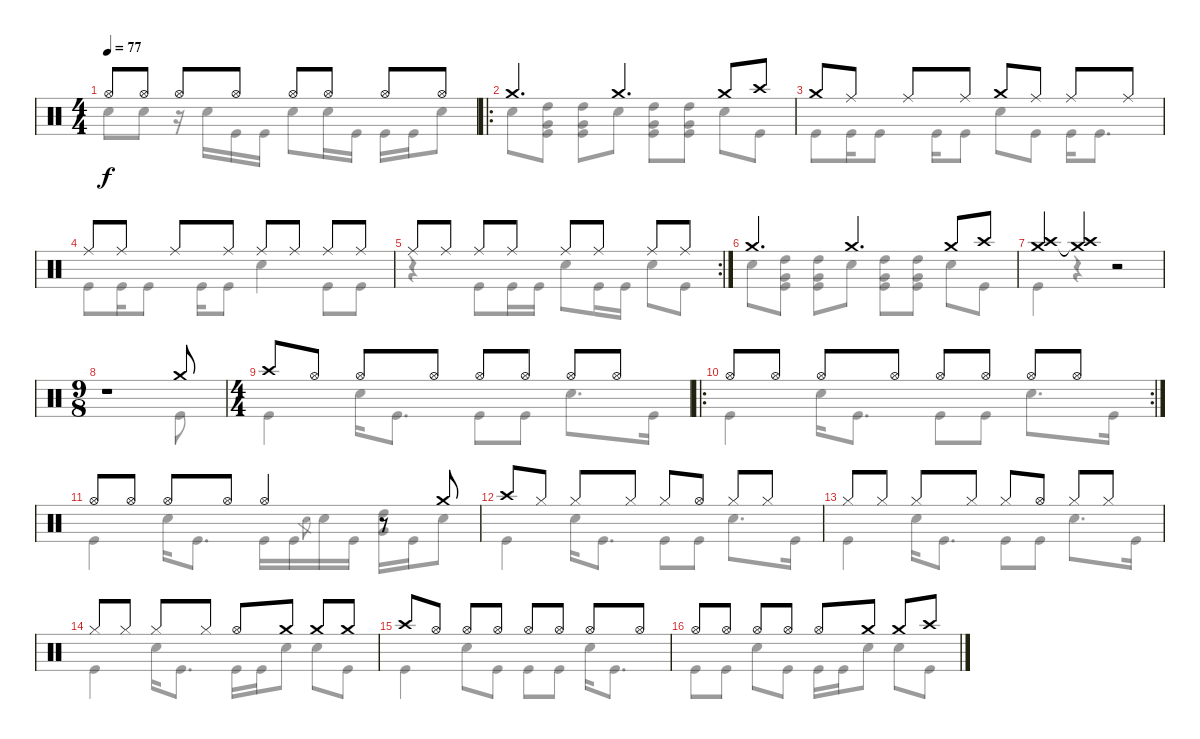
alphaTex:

\track "" {instrument percussion}
\staff {score}
\articulation defaults
\voice
\ts (4 4)
\tempo 77
\clef neutral
\ks c "Hi-Hat (open)".8{dy f} "Hi-Hat (open)".8 "Hi-Hat (open)".8 "Hi-Hat (open)".8 "Hi-Hat (open)".8 "Hi-Hat (open)".8 "Hi-Hat (open)".8 "Hi-Hat (open)".8
|
\ro "Crash medium (hit)".4{d} "Crash medium (hit)".4{d} "Crash medium (hit)".8 "Crash high (hit)".8
|
"Crash medium (hit)".8 "Ride (middle)".8 "Ride (middle)".8 "Ride (middle)".8 "Crash medium (hit)".8 "Ride (middle)".8 "Ride (middle)".8 "Ride (middle)".8 |
"Ride (middle)".8 "Ride (middle)".8 "Ride (middle)".8 "Ride (middle)".8 "Ride (middle)".8 "Ride (middle)".8 "Ride (middle)".8 "Ride (middle)".8 |
\rc 2 "Ride (middle)".8 "Ride (middle)".8 "Ride (middle)".8 "Ride (middle)".8 "Ride (middle)".8 "Ride (middle)".8 "Ride (middle)".8 "Ride (middle)".8
|
"Crash medium (hit)".4{d} "Crash medium (hit)".4{d} "Crash medium (hit)".8 "Crash high (hit)".8 |
("Crash high (hit)" "Crash medium (hit)").4 ("Crash high (hit)"{t} "Crash medium (hit)").4 r.2 |
\ts (9 8)
r.1 "Crash medium (hit)".8 |
\ts (4 4)
"Crash high (hit)".8 "Hi-Hat (open)".8 "Hi-Hat (open)".8 "Hi-Hat (open)".8 "Hi-Hat (open)".8 "Hi-Hat (open)".8 "Hi-Hat (open)".8 "Hi-Hat (open)".8 |
\ro
\rc 2 "Hi-Hat (open)".8 "Hi-Hat (open)".8 "Hi-Hat (open)".8 "Hi-Hat (open)".8 "Hi-Hat (open)".8 "Hi-Hat (open)".8 "Hi-Hat (open)".8 "Hi-Hat (open)".8
|
"Hi-Hat (open)".8 "Hi-Hat (open)".8 "Hi-Hat (open)".8 "Hi-Hat (open)".8 "Hi-Hat (open)".4 r.8 "Crash medium (hit)".8 |
"Crash high (hit)".8 "Hi-Hat (closed)".8 "Hi-Hat (closed)".8 "Hi-Hat (closed)".8 "Hi-Hat (closed)".8 "Hi-Hat (open)".8 "Hi-Hat (closed)".8 "Hi-Hat (closed)".8 |
"Hi-Hat (closed)".8 "Hi-Hat (closed)".8 "Hi-Hat (closed)".8 "Hi-Hat (closed)".8 "Hi-Hat (closed)".8 "Hi-Hat (open)".8 "Hi-Hat (closed)".8 "Hi-Hat (closed)".8 |
"Hi-Hat (closed)".8 "Hi-Hat (closed)".8 "Hi-Hat (closed)".8 "Hi-Hat (closed)".8 "Hi-Hat (open)".8 "Crash medium (hit)".8 "Crash medium (hit)".8 "Crash medium (hit)".8 |
"Crash high (hit)".8 "Hi-Hat (open)".8 "Hi-Hat (open)".8 "Hi-Hat (open)".8 "Hi-Hat (open)".8 "Hi-Hat (open)".8 "Hi-Hat (open)".8 "Hi-Hat (open)".8 |
"Hi-Hat (open)".8 "Hi-Hat (open)".8 "Hi-Hat (open)".8 "Hi-Hat (open)".8 "Hi-Hat (open)".8 "Crash medium (hit)".8 "Crash medium (hit)".8 "Crash high (hit)".8
\voice
\clef neutral
\ottava regular
\simile none
\ks c "Snare (hit) 2".8{dy f} "Snare (hit) 2".8
r.16 "Snare (hit) 2".16 "Kick (hit)".16 "Kick (hit)".16 "Snare (hit) 2".8 "Snare (hit) 2".16 "Kick (hit)".16 "Kick (hit)".16 "Kick (hit)".16 "Snare (hit) 2".8 |
"Snare (hit) 2".8 ("High Tom (hit)" "Very Low Tom (hit)" "Kick (hit)").8 ("High Tom (hit)" "Very Low Tom (hit)" "Kick (hit)").8 "Snare (hit) 2".8 ("High Tom (hit)" "Very Low Tom (hit)" "Kick (hit)").8 ("High Tom (hit)" "Very Low Tom (hit)" "Kick (hit)").8 "Snare (hit) 2".8 "Kick (hit)".8 |
"Kick (hit)".8 "Kick (hit)".16 "Kick (hit)".8 "Kick (hit)".16 "Kick (hit)".8 "Snare (hit) 2".8 "Kick (hit)".8 "Kick (hit)".16 "Kick (hit)".8{d} |
"Kick (hit)".8 "Kick (hit)".16 "Kick (hit)".8 "Kick (hit)".16 "Kick (hit)".8 "Snare (hit) 2".4 "Kick (hit)".8 "Kick (hit)".8 |
r.4 "Kick (hit)".8 "Kick (hit)".16 "Kick (hit)".16 "Snare (hit) 2".8 "Kick (hit)".16 "Kick (hit)".16 "Snare (hit) 2".8 "Kick (hit)".8 |
"Snare (hit) 2".8 ("High Tom (hit)" "Very Low Tom (hit)" "Kick (hit)").8 ("High Tom (hit)" "Very Low Tom (hit)" "Kick (hit)").8 "Snare (hit) 2".8 ("High Tom (hit)" "Very Low Tom (hit)" "Kick (hit)").8 ("High Tom (hit)" "Very Low Tom (hit)" "Kick (hit)").8 "Snare (hit) 2".8 "Kick (hit)".8 |
"Kick (hit)".4 r.4 r.2 |
r.1 "Kick (hit)".8 |
"Kick (hit)".4 "Snare (hit) 2".16 "Kick (hit)".8{d} "Kick (hit)".8 "Kick (hit)".8 "Snare (hit) 2".8{d} "Kick (hit)".16 |
"Kick (hit)".4 "Snare (hit) 2".16 "Kick (hit)".8{d} "Kick (hit)".8 "Kick (hit)".8 "Snare (hit) 2".8{d} "Kick (hit)".16 |
"Kick (hit)".4 "Snare (hit) 2".16 "Kick (hit)".8{d} "Kick (hit)".16 "Kick (hit)".16 "Snare (hit) 2".8{gr} "Snare (hit) 2".16 "Kick (hit)".16 ("High Tom (hit)" "Very Low Tom (hit)").16 "Kick (hit)".16 "Snare (hit) 2".8 |
"Kick (hit)".4 "Snare (hit) 2".16 "Kick (hit)".8{d} "Kick (hit)".8 "Kick (hit)".8 "Snare (hit) 2".8{d} "Kick (hit)".16 |
"Kick (hit)".4 "Snare (hit) 2".16 "Kick (hit)".8{d} "Kick (hit)".8 "Kick (hit)".8 "Snare (hit) 2".8{d} "Kick (hit)".16 |
"Kick (hit)".4 "Snare (hit) 2".16 "Kick (hit)".8{d} "Kick (hit)".16 "Kick (hit)".16 "Snare (hit) 2".8 "Snare (hit) 2".8 "Kick (hit)".8 |
"Kick (hit)".4 "Snare (hit) 2".8 "Kick (hit)".8 "Kick (hit)".8 "Kick (hit)".8 "Snare (hit) 2".16 "Kick (hit)".8{d} |
"Kick (hit)".8 "Kick (hit)".8 "Snare (hit) 2".8 "Kick (hit)".8 "Kick (hit)".16 "Kick (hit)".16 "Snare (hit) 2".8 "Snare (hit) 2".8 "Kick (hit)".8
